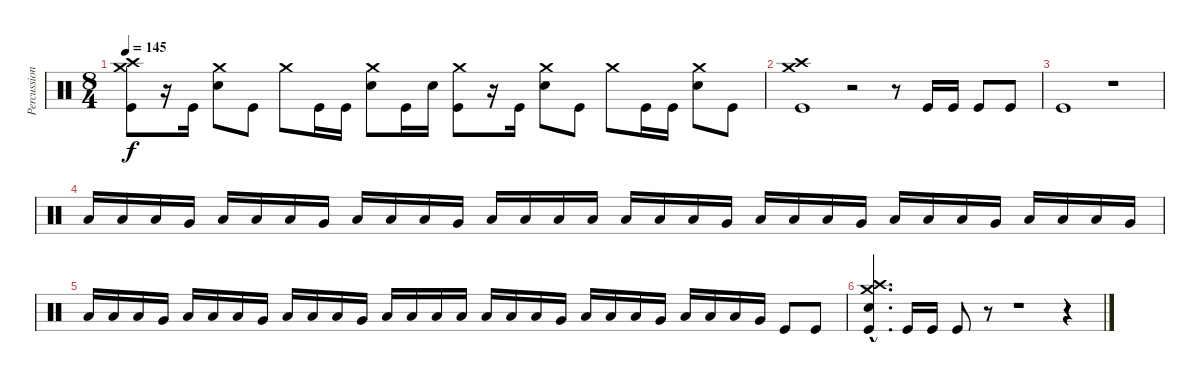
\track ("Percussion" "Percussion") {instrument percussion}
\staff {score}
\articulation defaults
\ts (8 4)
\tempo 145
\clef neutral
\ks c
("Kick (hit)" "Crash high (hit)" "Crash medium (hit)").8{dy f} r.16 "Kick (hit)".16 ("Electric Snare (hit)" "Crash medium (hit)").8 "Kick (hit)".8 "Crash medium (hit)".8 "Kick (hit)".16 "Kick (hit)".16 ("Electric Snare (hit)" "Crash medium (hit)").8 "Kick (hit)".16 "Electric Snare (hit)".16 ("Kick (hit)" "Crash medium (hit)").8 r.16 "Kick (hit)".16 ("Electric Snare (hit)" "Crash medium (hit)").8 "Kick (hit)".8 "Crash medium (hit)".8 "Kick (hit)".16 "Kick (hit)".16 ("Electric Snare (hit)" "Crash medium (hit)").8 "Kick (hit)".8 |
("Kick (hit)" "Crash medium (hit)" "Crash high (hit)").1 r.2 r.8 "Kick (hit)".16 "Kick (hit)".16 "Kick (hit)".8 "Kick (hit)".8 |
"Kick (hit)".1 r.1 |
"Low Tom (hit)".16 "Low Tom (hit)".16 "Low Tom (hit)".16 "Very Low Tom (hit)".16 "Low Floor Tom (hit)".16 "Low Floor Tom (hit)".16 "Low Floor Tom (hit)".16 "Very Low Tom (hit)".16 "Low Tom (hit)".16 "Low Tom (hit)".16 "Low Tom (hit)".16 "Very Low Tom (hit)".16 "Low Floor Tom (hit)".16 "Low Floor Tom (hit)".16 "Low Floor Tom (hit)".16 "Low Floor Tom (hit)".16 "Low Tom (hit)".16 "Low Tom (hit)".16 "Low Tom (hit)".16 "Very Low Tom (hit)".16 "Low Floor Tom (hit)".16 "Low Floor Tom (hit)".16 "Low Floor Tom (hit)".16 "Very Low Tom (hit)".16 "Low Tom (hit)".16 "Low Tom (hit)".16 "Low Tom (hit)".16 "Very Low Tom (hit)".16 "Low Floor Tom (hit)".16 "Low Floor Tom (hit)".16 "Low Floor Tom (hit)".16 "Very Low Tom (hit)".16 |
"Low Tom (hit)".16 "Low Tom (hit)".16 "Low Tom (hit)".16 "Very Low Tom (hit)".16 "Low Floor Tom (hit)".16 "Low Floor Tom (hit)".16 "Low Floor Tom (hit)".16 "Very Low Tom (hit)".16 "Low Tom (hit)".16 "Low Tom (hit)".16 "Low Tom (hit)".16 "Very Low Tom (hit)".16 "Low Floor Tom (hit)".16 "Low Floor Tom (hit)".16 "Low Floor Tom (hit)".16 "Low Floor Tom (hit)".16 "Low Tom (hit)".16 "Low Tom (hit)".16 "Low Tom (hit)".16 "Very Low Tom (hit)".16 "Low Floor Tom (hit)".16 "Low Floor Tom (hit)".16 "Low Floor Tom (hit)".16 "Very Low Tom (hit)".16 "Low Tom (hit)".16 "Low Tom (hit)".16 "Low Tom (hit)".16 "Very Low Tom (hit)".16 "Kick (hit)".8 "Kick (hit)".8 |
("Electric Snare (hit)"{hac} "Crash high (hit)"{hac} "Crash medium (hit)"{hac} "Kick (hit)"{hac}).4{d} "Kick (hit)".16 "Kick (hit)".16 "Kick (hit)".8 r.8 r.1 r.4
